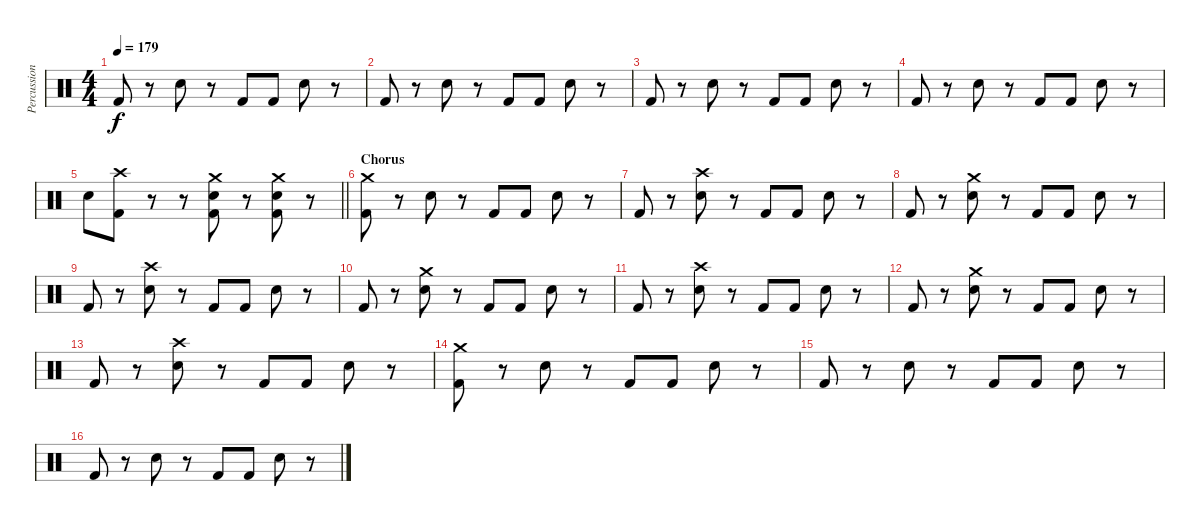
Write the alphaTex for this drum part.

\track ("Percussion" "Percussion") {instrument percussion}
\staff {score}
\articulation defaults
\ts (4 4)
\tempo 179
\clef neutral
\ks c "Kick (hit) 2".8{dy f}
r.8 "Snare (hit) 2".8 r.8 "Kick (hit) 2".8 "Kick (hit) 2".8 "Snare (hit) 2".8 r.8 |
"Kick (hit) 2".8 r.8 "Snare (hit) 2".8 r.8 "Kick (hit) 2".8 "Kick (hit) 2".8 "Snare (hit) 2".8 r.8 |
"Kick (hit) 2".8 r.8 "Snare (hit) 2".8 r.8 "Kick (hit) 2".8 "Kick (hit) 2".8 "Snare (hit) 2".8 r.8 |
"Kick (hit) 2".8 r.8 "Snare (hit) 2".8 r.8 "Kick (hit) 2".8 "Kick (hit) 2".8 "Snare (hit) 2".8 r.8 |
\barLineRight lightlight "Snare (hit) 2".8
("Crash high (hit)" "Kick (hit) 2").8 r.8 r.8 ("Crash medium (hit)" "Snare (hit) 2" "Kick (hit) 2").8 r.8 ("Crash medium (hit)" "Snare (hit) 2" "Kick (hit) 2").8 r.8 |
\section ("" "Chorus")
("Crash medium (hit)" "Kick (hit) 2").8 r.8 "Snare (hit) 2".8 r.8 "Kick (hit) 2".8 "Kick (hit) 2".8 "Snare (hit) 2".8 r.8 |
"Kick (hit) 2".8 r.8 ("Crash high (hit)" "Snare (hit) 2").8 r.8 "Kick (hit) 2".8 "Kick (hit) 2".8 "Snare (hit) 2".8 r.8 |
"Kick (hit) 2".8 r.8 ("Crash medium (hit)" "Snare (hit) 2").8 r.8 "Kick (hit) 2".8 "Kick (hit) 2".8 "Snare (hit) 2".8 r.8 |
"Kick (hit) 2".8 r.8 ("Crash high (hit)" "Snare (hit) 2").8 r.8 "Kick (hit) 2".8 "Kick (hit) 2".8 "Snare (hit) 2".8 r.8 |
"Kick (hit) 2".8 r.8 ("Crash medium (hit)" "Snare (hit) 2").8 r.8 "Kick (hit) 2".8 "Kick (hit) 2".8 "Snare (hit) 2".8 r.8 |
"Kick (hit) 2".8 r.8 ("Crash high (hit)" "Snare (hit) 2").8 r.8 "Kick (hit) 2".8 "Kick (hit) 2".8 "Snare (hit) 2".8 r.8 |
"Kick (hit) 2".8 r.8 ("Crash medium (hit)" "Snare (hit) 2").8 r.8 "Kick (hit) 2".8 "Kick (hit) 2".8 "Snare (hit) 2".8 r.8 |
"Kick (hit) 2".8 r.8 ("Crash high (hit)" "Snare (hit) 2").8 r.8 "Kick (hit) 2".8 "Kick (hit) 2".8 "Snare (hit) 2".8 r.8 |
("Crash medium (hit)" "Kick (hit) 2").8 r.8 "Snare (hit) 2".8 r.8 "Kick (hit) 2".8 "Kick (hit) 2".8 "Snare (hit) 2".8 r.8 |
"Kick (hit) 2".8 r.8 "Snare (hit) 2".8 r.8 "Kick (hit) 2".8 "Kick (hit) 2".8 "Snare (hit) 2".8 r.8 |
"Kick (hit) 2".8 r.8 "Snare (hit) 2".8 r.8 "Kick (hit) 2".8 "Kick (hit) 2".8 "Snare (hit) 2".8 r.8
